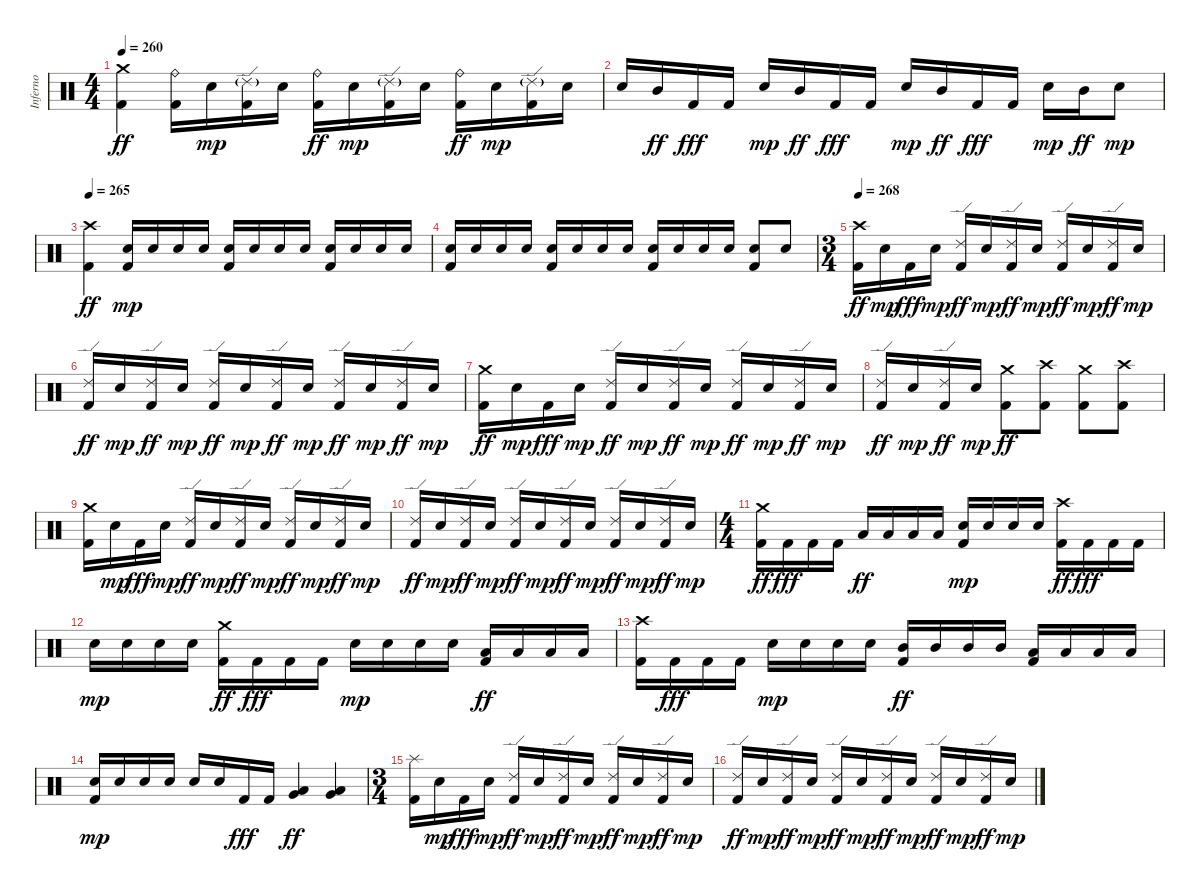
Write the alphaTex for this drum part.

\track ("Inferno" "Inferno") {instrument percussion}
\staff {score}
\articulation defaults
\ts (4 4)
\tempo 260
\clef neutral
\ks c
("Kick (hit) 2" "Crash medium (hit)").4{dy ff} ("Kick (hit) 2" "Ride (bell)").16 "Electric Snare (hit)".16{dy mp} ("Kick (hit) 2" "Ride (edge) 2"{g}).16 "Electric Snare (hit)".16 ("Kick (hit) 2" "Ride (bell)").16{dy ff} "Electric Snare (hit)".16{dy mp} ("Kick (hit) 2" "Ride (edge) 2"{g}).16 "Electric Snare (hit)".16 ("Kick (hit) 2" "Ride (bell)").16{dy ff} "Electric Snare (hit)".16{dy mp} ("Kick (hit) 2" "Ride (edge) 2"{g}).16 "Electric Snare (hit)".16 |
"Electric Snare (hit)".16 "Mid Tom (hit)".16{dy ff} "Kick (hit) 2".16{dy fff} "Kick (hit) 2".16 "Electric Snare (hit)".16{dy mp} "Mid Tom (hit)".16{dy ff} "Kick (hit) 2".16{dy fff} "Kick (hit) 2".16 "Electric Snare (hit)".16{dy mp} "Mid Tom (hit)".16{dy ff} "Kick (hit) 2".16{dy fff} "Kick (hit) 2".16 "Electric Snare (hit)".16{dy mp} "Mid Tom (hit)".16{dy ff} "Electric Snare (hit)".8{dy mp} |
\tempo 265
("Kick (hit) 2" "Crash high (hit)").4{dy ff} ("Kick (hit) 2" "Electric Snare (hit)").16{dy mp} "Electric Snare (hit)".16 "Electric Snare (hit)".16 "Electric Snare (hit)".16 ("Kick (hit) 2" "Electric Snare (hit)").16 "Electric Snare (hit)".16 "Electric Snare (hit)".16 "Electric Snare (hit)".16 ("Kick (hit) 2" "Electric Snare (hit)").16 "Electric Snare (hit)".16 "Electric Snare (hit)".16 "Electric Snare (hit)".16 |
("Kick (hit) 2" "Electric Snare (hit)").16 "Electric Snare (hit)".16 "Electric Snare (hit)".16 "Electric Snare (hit)".16 ("Kick (hit) 2" "Electric Snare (hit)").16 "Electric Snare (hit)".16 "Electric Snare (hit)".16 "Electric Snare (hit)".16 ("Kick (hit) 2" "Electric Snare (hit)").16 "Electric Snare (hit)".16 "Electric Snare (hit)".16 "Electric Snare (hit)".16 ("Kick (hit) 2" "Electric Snare (hit)").8 "Electric Snare (hit)".8 |
\ts (3 4)
\tempo 268
("Kick (hit) 2" "Crash high (hit)").16{dy ff} "Electric Snare (hit)".16{dy mp} "Kick (hit) 2".16{dy fff} "Electric Snare (hit)".16{dy mp} ("Kick (hit) 2" "Ride (edge) 2").16{dy ff} "Electric Snare (hit)".16{dy mp} ("Kick (hit) 2" "Ride (edge) 2").16{dy ff} "Electric Snare (hit)".16{dy mp} ("Kick (hit) 2" "Ride (edge) 2").16{dy ff} "Electric Snare (hit)".16{dy mp} ("Kick (hit) 2" "Ride (edge) 2").16{dy ff} "Electric Snare (hit)".16{dy mp} |
("Kick (hit) 2" "Ride (edge) 2").16{dy ff} "Electric Snare (hit)".16{dy mp} ("Kick (hit) 2" "Ride (edge) 2").16{dy ff} "Electric Snare (hit)".16{dy mp} ("Kick (hit) 2" "Ride (edge) 2").16{dy ff} "Electric Snare (hit)".16{dy mp} ("Kick (hit) 2" "Ride (edge) 2").16{dy ff} "Electric Snare (hit)".16{dy mp} ("Kick (hit) 2" "Ride (edge) 2").16{dy ff} "Electric Snare (hit)".16{dy mp} ("Kick (hit) 2" "Ride (edge) 2").16{dy ff} "Electric Snare (hit)".16{dy mp} |
("Kick (hit) 2" "Crash medium (hit)").16{dy ff} "Electric Snare (hit)".16{dy mp} "Kick (hit) 2".16{dy fff} "Electric Snare (hit)".16{dy mp} ("Kick (hit) 2" "Ride (edge) 2").16{dy ff} "Electric Snare (hit)".16{dy mp} ("Kick (hit) 2" "Ride (edge) 2").16{dy ff} "Electric Snare (hit)".16{dy mp} ("Kick (hit) 2" "Ride (edge) 2").16{dy ff} "Electric Snare (hit)".16{dy mp} ("Kick (hit) 2" "Ride (edge) 2").16{dy ff} "Electric Snare (hit)".16{dy mp} |
("Kick (hit) 2" "Ride (edge) 2").16{dy ff} "Electric Snare (hit)".16{dy mp} ("Kick (hit) 2" "Ride (edge) 2").16{dy ff} "Electric Snare (hit)".16{dy mp} ("Kick (hit) 2" "Crash medium (hit)").8{dy ff} ("Kick (hit) 2" "Crash high (hit)").8 ("Kick (hit) 2" "Crash medium (hit)").8 ("Kick (hit) 2" "Crash high (hit)").8 |
("Kick (hit) 2" "Crash medium (hit)").16 "Electric Snare (hit)".16{dy mp} "Kick (hit) 2".16{dy fff} "Electric Snare (hit)".16{dy mp} ("Kick (hit) 2" "Ride (edge) 2").16{dy ff} "Electric Snare (hit)".16{dy mp} ("Kick (hit) 2" "Ride (edge) 2").16{dy ff} "Electric Snare (hit)".16{dy mp} ("Kick (hit) 2" "Ride (edge) 2").16{dy ff} "Electric Snare (hit)".16{dy mp} ("Kick (hit) 2" "Ride (edge) 2").16{dy ff} "Electric Snare (hit)".16{dy mp} |
("Kick (hit) 2" "Ride (edge) 2").16{dy ff} "Electric Snare (hit)".16{dy mp} ("Kick (hit) 2" "Ride (edge) 2").16{dy ff} "Electric Snare (hit)".16{dy mp} ("Kick (hit) 2" "Ride (edge) 2").16{dy ff} "Electric Snare (hit)".16{dy mp} ("Kick (hit) 2" "Ride (edge) 2").16{dy ff} "Electric Snare (hit)".16{dy mp} ("Kick (hit) 2" "Ride (edge) 2").16{dy ff} "Electric Snare (hit)".16{dy mp} ("Kick (hit) 2" "Ride (edge) 2").16{dy ff} "Electric Snare (hit)".16{dy mp} |
\ts (4 4)
("Kick (hit) 2" "Crash medium (hit)").16{dy ff} "Kick (hit) 2".16{dy fff} "Kick (hit) 2".16 "Kick (hit) 2".16 "Low Tom (hit)".16{dy ff} "Low Tom (hit)".16 "Low Tom (hit)".16 "Low Tom (hit)".16 ("Kick (hit) 2" "Electric Snare (hit)").16{dy mp} "Electric Snare (hit)".16 "Electric Snare (hit)".16 "Electric Snare (hit)".16 ("Kick (hit) 2" "Crash high (hit)").16{dy ff} "Kick (hit) 2".16{dy fff} "Kick (hit) 2".16 "Kick (hit) 2".16 |
"Electric Snare (hit)".16{dy mp} "Electric Snare (hit)".16 "Electric Snare (hit)".16 "Electric Snare (hit)".16 ("Kick (hit) 2" "Crash medium (hit)").16{dy ff} "Kick (hit) 2".16{dy fff} "Kick (hit) 2".16 "Kick (hit) 2".16 "Electric Snare (hit)".16{dy mp} "Electric Snare (hit)".16 "Electric Snare (hit)".16 "Electric Snare (hit)".16 ("Kick (hit) 2" "Low Tom (hit)").16{dy ff} "Low Tom (hit)".16 "Low Tom (hit)".16 "Low Tom (hit)".16 |
("Kick (hit) 2" "Crash high (hit)").16 "Kick (hit) 2".16{dy fff} "Kick (hit) 2".16 "Kick (hit) 2".16 "Electric Snare (hit)".16{dy mp} "Electric Snare (hit)".16 "Electric Snare (hit)".16 "Electric Snare (hit)".16 ("Kick (hit) 2" "Mid Tom (hit)").16{dy ff} "Mid Tom (hit)".16 "Mid Tom (hit)".16 "Mid Tom (hit)".16 ("Kick (hit) 2" "Low Tom (hit)").16 "Low Tom (hit)".16 "Low Tom (hit)".16 "Low Tom (hit)".16 |
("Kick (hit) 2" "Electric Snare (hit)").16{dy mp} "Electric Snare (hit)".16 "Electric Snare (hit)".16 "Electric Snare (hit)".16 "Electric Snare (hit)".16 "Electric Snare (hit)".16 "Kick (hit) 2".16{dy fff} "Kick (hit) 2".16 ("Very Low Tom (hit)" "Low Floor Tom (hit)").4{dy ff} ("Very Low Tom (hit)" "Low Floor Tom (hit)").4 |
\ts (3 4)
("Kick (hit) 2" "Splash (hit)").16 "Electric Snare (hit)".16{dy mp} "Kick (hit) 2".16{dy fff} "Electric Snare (hit)".16{dy mp} ("Kick (hit) 2" "Ride (edge) 2").16{dy ff} "Electric Snare (hit)".16{dy mp} ("Kick (hit) 2" "Ride (edge) 2").16{dy ff} "Electric Snare (hit)".16{dy mp} ("Kick (hit) 2" "Ride (edge) 2").16{dy ff} "Electric Snare (hit)".16{dy mp} ("Kick (hit) 2" "Ride (edge) 2").16{dy ff} "Electric Snare (hit)".16{dy mp} |
("Kick (hit) 2" "Ride (edge) 2").16{dy ff} "Electric Snare (hit)".16{dy mp} ("Kick (hit) 2" "Ride (edge) 2").16{dy ff} "Electric Snare (hit)".16{dy mp} ("Kick (hit) 2" "Ride (edge) 2").16{dy ff} "Electric Snare (hit)".16{dy mp} ("Kick (hit) 2" "Ride (edge) 2").16{dy ff} "Electric Snare (hit)".16{dy mp} ("Kick (hit) 2" "Ride (edge) 2").16{dy ff} "Electric Snare (hit)".16{dy mp} ("Kick (hit) 2" "Ride (edge) 2").16{dy ff} "Electric Snare (hit)".16{dy mp}
